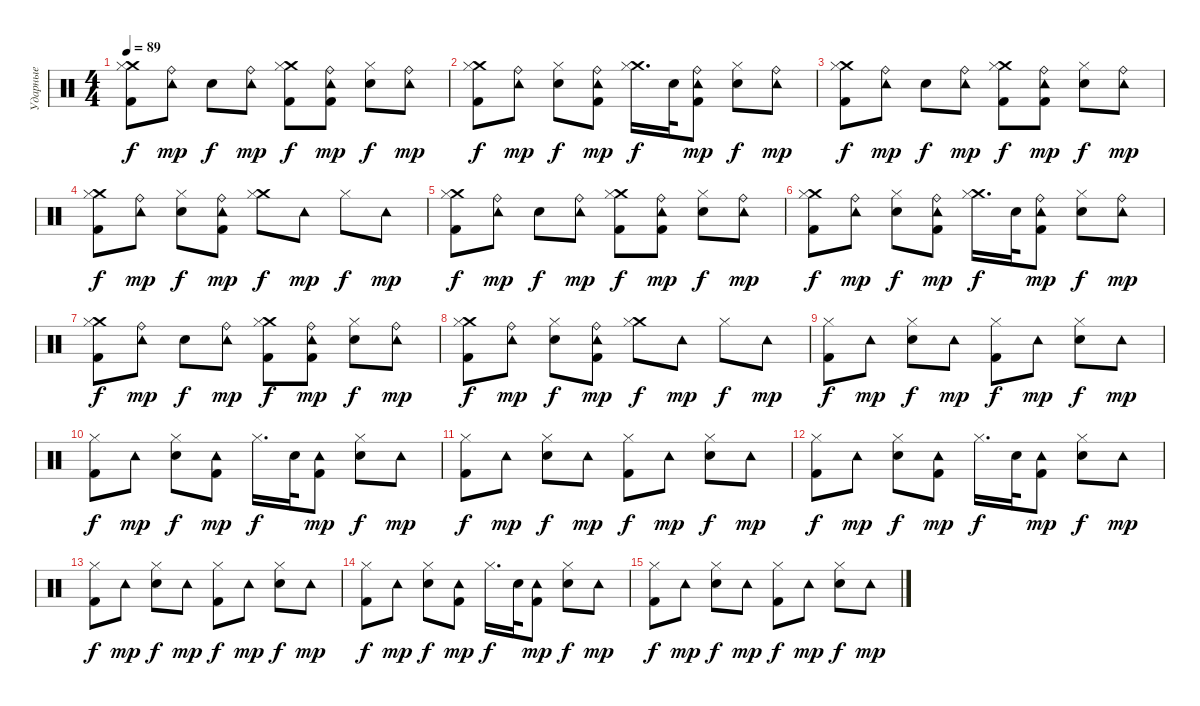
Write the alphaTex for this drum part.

\track ("Ударные" "Ударные") {instrument percussion}
\staff {score}
\articulation defaults
\ts (4 4)
\tempo 89
\clef neutral
\ks c
("Crash medium (hit)" "Kick (hit) 2" "Hi-Hat (closed)").8{dy f} ("Ride (bell)" "Tambourine (hit)").8{dy mp} "Electric Snare (hit)".8{dy f} ("Ride (bell)" "Tambourine (hit)").8{dy mp} ("Crash medium (hit)" "Kick (hit) 2" "Hi-Hat (closed)").8{dy f} ("Kick (hit) 2" "Ride (bell)" "Tambourine (hit)").8{dy mp} ("Electric Snare (hit)" "Hi-Hat (closed)").8{dy f} ("Ride (bell)" "Tambourine (hit)").8{dy mp} |
("Crash medium (hit)" "Kick (hit) 2" "Hi-Hat (closed)").8{dy f} ("Ride (bell)" "Tambourine (hit)").8{dy mp} ("Electric Snare (hit)" "Hi-Hat (closed)").8{dy f} ("Ride (bell)" "Kick (hit) 2" "Tambourine (hit)").8{dy mp} ("Crash medium (hit)" "Hi-Hat (closed)").16{d dy f} "Electric Snare (hit)".32 ("Ride (bell)" "Kick (hit) 2" "Tambourine (hit)").8{dy mp} ("Electric Snare (hit)" "Hi-Hat (closed)").8{dy f} ("Ride (bell)" "Tambourine (hit)").8{dy mp} |
("Crash medium (hit)" "Kick (hit) 2" "Hi-Hat (closed)").8{dy f} ("Ride (bell)" "Tambourine (hit)").8{dy mp} "Electric Snare (hit)".8{dy f} ("Ride (bell)" "Tambourine (hit)").8{dy mp} ("Crash medium (hit)" "Kick (hit) 2" "Hi-Hat (closed)").8{dy f} ("Kick (hit) 2" "Ride (bell)" "Tambourine (hit)").8{dy mp} ("Electric Snare (hit)" "Hi-Hat (closed)").8{dy f} ("Ride (bell)" "Tambourine (hit)").8{dy mp} |
("Crash medium (hit)" "Kick (hit) 2" "Hi-Hat (closed)").8{dy f} ("Ride (bell)" "Tambourine (hit)").8{dy mp} ("Electric Snare (hit)" "Hi-Hat (closed)").8{dy f} ("Ride (bell)" "Kick (hit) 2" "Tambourine (hit)").8{dy mp} ("Crash medium (hit)" "Hi-Hat (closed)").8{dy f} "Tambourine (hit)".8{dy mp} "Hi-Hat (closed)".8{dy f} "Tambourine (hit)".8{dy mp} |
("Crash medium (hit)" "Kick (hit) 2" "Hi-Hat (closed)").8{dy f} ("Ride (bell)" "Tambourine (hit)").8{dy mp} "Electric Snare (hit)".8{dy f} ("Ride (bell)" "Tambourine (hit)").8{dy mp} ("Crash medium (hit)" "Kick (hit) 2" "Hi-Hat (closed)").8{dy f} ("Kick (hit) 2" "Ride (bell)" "Tambourine (hit)").8{dy mp} ("Electric Snare (hit)" "Hi-Hat (closed)").8{dy f} ("Ride (bell)" "Tambourine (hit)").8{dy mp} |
("Crash medium (hit)" "Kick (hit) 2" "Hi-Hat (closed)").8{dy f} ("Ride (bell)" "Tambourine (hit)").8{dy mp} ("Electric Snare (hit)" "Hi-Hat (closed)").8{dy f} ("Ride (bell)" "Kick (hit) 2" "Tambourine (hit)").8{dy mp} ("Crash medium (hit)" "Hi-Hat (closed)").16{d dy f} "Electric Snare (hit)".32 ("Ride (bell)" "Kick (hit) 2" "Tambourine (hit)").8{dy mp} ("Electric Snare (hit)" "Hi-Hat (closed)").8{dy f} ("Ride (bell)" "Tambourine (hit)").8{dy mp} |
("Crash medium (hit)" "Kick (hit) 2" "Hi-Hat (closed)").8{dy f} ("Ride (bell)" "Tambourine (hit)").8{dy mp} "Electric Snare (hit)".8{dy f} ("Ride (bell)" "Tambourine (hit)").8{dy mp} ("Crash medium (hit)" "Kick (hit) 2" "Hi-Hat (closed)").8{dy f} ("Kick (hit) 2" "Ride (bell)" "Tambourine (hit)").8{dy mp} ("Electric Snare (hit)" "Hi-Hat (closed)").8{dy f} ("Ride (bell)" "Tambourine (hit)").8{dy mp} |
("Crash medium (hit)" "Kick (hit) 2" "Hi-Hat (closed)").8{dy f} ("Ride (bell)" "Tambourine (hit)").8{dy mp} ("Electric Snare (hit)" "Hi-Hat (closed)").8{dy f} ("Ride (bell)" "Kick (hit) 2" "Tambourine (hit)").8{dy mp} ("Crash medium (hit)" "Hi-Hat (closed)").8{dy f} "Tambourine (hit)".8{dy mp} "Hi-Hat (closed)".8{dy f} "Tambourine (hit)".8{dy mp} |
("Kick (hit) 2" "Hi-Hat (closed)").8{dy f} "Tambourine (hit)".8{dy mp} ("Electric Snare (hit)" "Hi-Hat (closed)").8{dy f} "Tambourine (hit)".8{dy mp} ("Kick (hit) 2" "Hi-Hat (closed)").8{dy f} "Tambourine (hit)".8{dy mp} ("Electric Snare (hit)" "Hi-Hat (closed)").8{dy f} "Tambourine (hit)".8{dy mp} |
("Kick (hit) 2" "Hi-Hat (closed)").8{dy f} "Tambourine (hit)".8{dy mp} ("Electric Snare (hit)" "Hi-Hat (closed)").8{dy f} ("Kick (hit) 2" "Tambourine (hit)").8{dy mp} "Hi-Hat (closed)".16{d dy f} "Electric Snare (hit)".32 ("Kick (hit) 2" "Tambourine (hit)").8{dy mp} ("Electric Snare (hit)" "Hi-Hat (closed)").8{dy f} "Tambourine (hit)".8{dy mp} |
("Kick (hit) 2" "Hi-Hat (closed)").8{dy f} "Tambourine (hit)".8{dy mp} ("Electric Snare (hit)" "Hi-Hat (closed)").8{dy f} "Tambourine (hit)".8{dy mp} ("Kick (hit) 2" "Hi-Hat (closed)").8{dy f} "Tambourine (hit)".8{dy mp} ("Electric Snare (hit)" "Hi-Hat (closed)").8{dy f} "Tambourine (hit)".8{dy mp} |
("Kick (hit) 2" "Hi-Hat (closed)").8{dy f} "Tambourine (hit)".8{dy mp} ("Electric Snare (hit)" "Hi-Hat (closed)").8{dy f} ("Kick (hit) 2" "Tambourine (hit)").8{dy mp} "Hi-Hat (closed)".16{d dy f} "Electric Snare (hit)".32 ("Kick (hit) 2" "Tambourine (hit)").8{dy mp} ("Electric Snare (hit)" "Hi-Hat (closed)").8{dy f} "Tambourine (hit)".8{dy mp} |
("Kick (hit) 2" "Hi-Hat (closed)").8{dy f} "Tambourine (hit)".8{dy mp} ("Electric Snare (hit)" "Hi-Hat (closed)").8{dy f} "Tambourine (hit)".8{dy mp} ("Kick (hit) 2" "Hi-Hat (closed)").8{dy f} "Tambourine (hit)".8{dy mp} ("Electric Snare (hit)" "Hi-Hat (closed)").8{dy f} "Tambourine (hit)".8{dy mp} |
("Kick (hit) 2" "Hi-Hat (closed)").8{dy f} "Tambourine (hit)".8{dy mp} ("Electric Snare (hit)" "Hi-Hat (closed)").8{dy f} ("Kick (hit) 2" "Tambourine (hit)").8{dy mp} "Hi-Hat (closed)".16{d dy f} "Electric Snare (hit)".32 ("Kick (hit) 2" "Tambourine (hit)").8{dy mp} ("Electric Snare (hit)" "Hi-Hat (closed)").8{dy f} "Tambourine (hit)".8{dy mp} |
("Kick (hit) 2" "Hi-Hat (closed)").8{dy f} "Tambourine (hit)".8{dy mp} ("Electric Snare (hit)" "Hi-Hat (closed)").8{dy f} "Tambourine (hit)".8{dy mp} ("Kick (hit) 2" "Hi-Hat (closed)").8{dy f} "Tambourine (hit)".8{dy mp} ("Electric Snare (hit)" "Hi-Hat (closed)").8{dy f} "Tambourine (hit)".8{dy mp}
